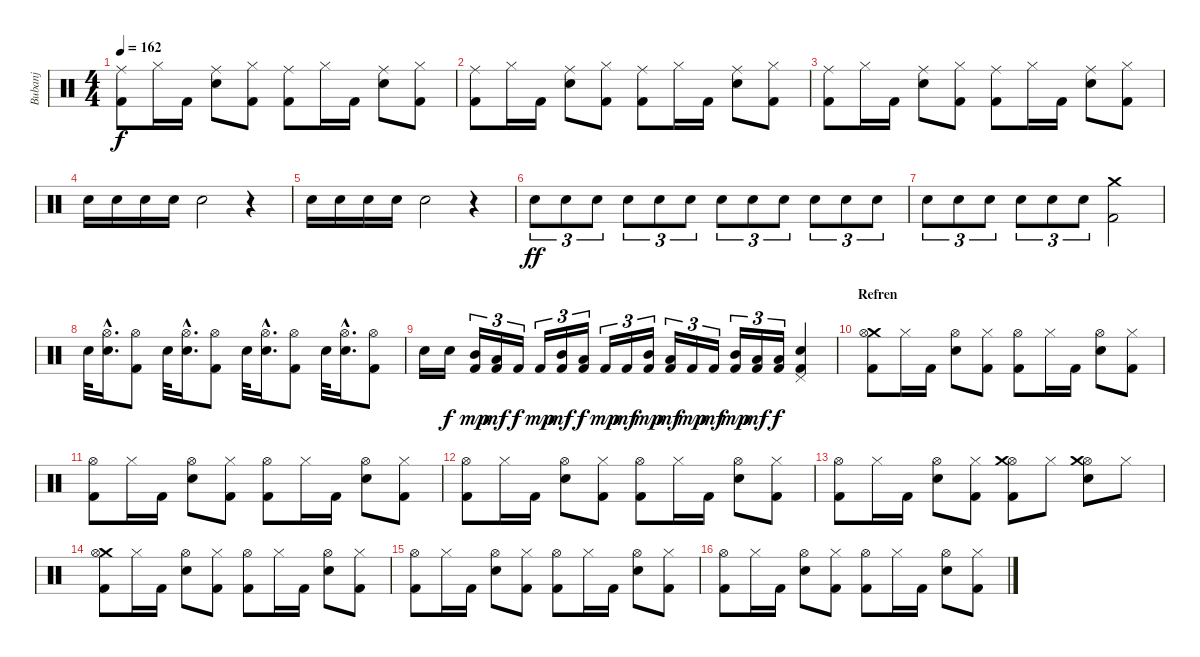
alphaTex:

\track ("Bubanj" "Bubanj") {instrument percussion}
\staff {score}
\articulation defaults
\ts (4 4)
\tempo 162
\clef neutral
\ks c
("Ride (middle)" "Kick (hit) 2").8{dy f} "Hi-Hat (closed)".16 "Kick (hit) 2".16 ("Ride (middle)" "Snare (hit) 2").8 ("Hi-Hat (closed)" "Kick (hit) 2").8 ("Ride (middle)" "Kick (hit) 2").8 "Hi-Hat (closed)".16 "Kick (hit) 2".16 ("Ride (middle)" "Snare (hit) 2").8 ("Hi-Hat (closed)" "Kick (hit) 2").8 |
("Ride (middle)" "Kick (hit) 2").8 "Hi-Hat (closed)".16 "Kick (hit) 2".16 ("Ride (middle)" "Snare (hit) 2").8 ("Hi-Hat (closed)" "Kick (hit) 2").8 ("Ride (middle)" "Kick (hit) 2").8 "Hi-Hat (closed)".16 "Kick (hit) 2".16 ("Ride (middle)" "Snare (hit) 2").8 ("Hi-Hat (closed)" "Kick (hit) 2").8 |
("Ride (middle)" "Kick (hit) 2").8 "Hi-Hat (closed)".16 "Kick (hit) 2".16 ("Ride (middle)" "Snare (hit) 2").8 ("Hi-Hat (closed)" "Kick (hit) 2").8 ("Ride (middle)" "Kick (hit) 2").8 "Hi-Hat (closed)".16 "Kick (hit) 2".16 ("Ride (middle)" "Snare (hit) 2").8 ("Hi-Hat (closed)" "Kick (hit) 2").8 |
"Snare (hit) 2".16 "Snare (hit) 2".16 "Snare (hit) 2".16 "Snare (hit) 2".16 "Snare (hit) 2".2 r.4 |
"Snare (hit) 2".16 "Snare (hit) 2".16 "Snare (hit) 2".16 "Snare (hit) 2".16 "Snare (hit) 2".2 r.4 |
"Snare (hit) 2".8{tu (3 2) dy ff} "Snare (hit) 2".8{tu (3 2)} "Snare (hit) 2".8{tu (3 2)} "Snare (hit) 2".8{tu (3 2)} "Snare (hit) 2".8{tu (3 2)} "Snare (hit) 2".8{tu (3 2)} "Snare (hit) 2".8{tu (3 2)} "Snare (hit) 2".8{tu (3 2)} "Snare (hit) 2".8{tu (3 2)} "Snare (hit) 2".8{tu (3 2)} "Snare (hit) 2".8{tu (3 2)} "Snare (hit) 2".8{tu (3 2)} |
"Snare (hit) 2".8{tu (3 2)} "Snare (hit) 2".8{tu (3 2)} "Snare (hit) 2".8{tu (3 2)} "Snare (hit) 2".8{tu (3 2)} "Snare (hit) 2".8{tu (3 2)} "Snare (hit) 2".8{tu (3 2)} ("Crash medium (hit)" "Kick (hit) 2").2 |
"Snare (hit) 2".32 ("Snare (hit) 2"{hac} "Hi-Hat (open)"{hac}).16{d} ("Kick (hit) 2" "Hi-Hat (open)").8 "Snare (hit) 2".32 ("Snare (hit) 2"{hac} "Hi-Hat (open)"{hac}).16{d} ("Kick (hit) 2" "Hi-Hat (open)").8 "Snare (hit) 2".32 ("Snare (hit) 2"{hac} "Hi-Hat (open)"{hac}).16{d} ("Kick (hit) 2" "Hi-Hat (open)").8 "Snare (hit) 2".32 ("Snare (hit) 2"{hac} "Hi-Hat (open)"{hac}).16{d} ("Kick (hit) 2" "Hi-Hat (open)").8 |
"Snare (hit) 2".16 "Snare (hit) 2".16{dy f} ("Mid Tom (hit)" "Kick (hit) 2").16{tu (3 2) dy mp} ("Low Tom (hit)" "Kick (hit) 2").16{tu (3 2) dy mf} "Kick (hit) 2".16{tu (3 2) dy f} "Kick (hit) 2".16{tu (3 2) dy mp} ("Mid Tom (hit)" "Kick (hit) 2").16{tu (3 2) dy mf} ("Low Tom (hit)" "Kick (hit) 2").16{tu (3 2) dy f} "Kick (hit) 2".16{tu (3 2) dy mp} "Kick (hit) 2".16{tu (3 2) dy mf} ("Mid Tom (hit)" "Kick (hit) 2").16{tu (3 2) dy mp} ("Low Tom (hit)" "Kick (hit) 2").16{tu (3 2) dy mf} "Kick (hit) 2".16{tu (3 2) dy mp} "Kick (hit) 2".16{tu (3 2) dy mf} ("Mid Tom (hit)" "Kick (hit) 2").16{tu (3 2) dy mp} ("Low Tom (hit)" "Kick (hit) 2").16{tu (3 2) dy mf} ("Low Floor Tom (hit)" "Kick (hit) 2").16{tu (3 2) dy f} ("Snare (hit) 2" "Kick (hit) 2" "Pedal Hi-Hat (hit)").4 |
\section ("" "Refren")
("Crash medium (hit)" "Kick (hit) 2" "Hi-Hat (open)").8 "Hi-Hat (closed)".16 "Kick (hit) 2".16 ("Hi-Hat (open)" "Snare (hit) 2").8 ("Hi-Hat (closed)" "Kick (hit) 2").8 ("Hi-Hat (open)" "Kick (hit) 2").8 "Hi-Hat (closed)".16 "Kick (hit) 2".16 ("Hi-Hat (open)" "Snare (hit) 2").8 ("Hi-Hat (closed)" "Kick (hit) 2").8 |
("Hi-Hat (open)" "Kick (hit) 2").8 "Hi-Hat (closed)".16 "Kick (hit) 2".16 ("Hi-Hat (open)" "Snare (hit) 2").8 ("Hi-Hat (closed)" "Kick (hit) 2").8 ("Hi-Hat (open)" "Kick (hit) 2").8 "Hi-Hat (closed)".16 "Kick (hit) 2".16 ("Hi-Hat (open)" "Snare (hit) 2").8 ("Hi-Hat (closed)" "Kick (hit) 2").8 |
("Hi-Hat (open)" "Kick (hit) 2").8 "Hi-Hat (closed)".16 "Kick (hit) 2".16 ("Hi-Hat (open)" "Snare (hit) 2").8 ("Hi-Hat (closed)" "Kick (hit) 2").8 ("Hi-Hat (open)" "Kick (hit) 2").8 "Hi-Hat (closed)".16 "Kick (hit) 2".16 ("Hi-Hat (open)" "Snare (hit) 2").8 ("Hi-Hat (closed)" "Kick (hit) 2").8 |
("Hi-Hat (open)" "Kick (hit) 2").8 "Hi-Hat (closed)".16 "Kick (hit) 2".16 ("Hi-Hat (open)" "Snare (hit) 2").8 ("Hi-Hat (closed)" "Kick (hit) 2").8 ("Hi-Hat (open)" "Kick (hit) 2" "Crash medium (hit)").8 "Hi-Hat (closed)".8 ("Hi-Hat (open)" "Snare (hit) 2" "Crash medium (hit)").8 "Hi-Hat (closed)".8 |
("Crash medium (hit)" "Kick (hit) 2" "Hi-Hat (open)").8 "Hi-Hat (closed)".16 "Kick (hit) 2".16 ("Hi-Hat (open)" "Snare (hit) 2").8 ("Hi-Hat (closed)" "Kick (hit) 2").8 ("Hi-Hat (open)" "Kick (hit) 2").8 "Hi-Hat (closed)".16 "Kick (hit) 2".16 ("Hi-Hat (open)" "Snare (hit) 2").8 ("Hi-Hat (closed)" "Kick (hit) 2").8 |
("Hi-Hat (open)" "Kick (hit) 2").8 "Hi-Hat (closed)".16 "Kick (hit) 2".16 ("Hi-Hat (open)" "Snare (hit) 2").8 ("Hi-Hat (closed)" "Kick (hit) 2").8 ("Hi-Hat (open)" "Kick (hit) 2").8 "Hi-Hat (closed)".16 "Kick (hit) 2".16 ("Hi-Hat (open)" "Snare (hit) 2").8 ("Hi-Hat (closed)" "Kick (hit) 2").8 |
("Hi-Hat (open)" "Kick (hit) 2").8 "Hi-Hat (closed)".16 "Kick (hit) 2".16 ("Hi-Hat (open)" "Snare (hit) 2").8 ("Hi-Hat (closed)" "Kick (hit) 2").8 ("Hi-Hat (open)" "Kick (hit) 2").8 "Hi-Hat (closed)".16 "Kick (hit) 2".16 ("Hi-Hat (open)" "Snare (hit) 2").8 ("Hi-Hat (closed)" "Kick (hit) 2").8
